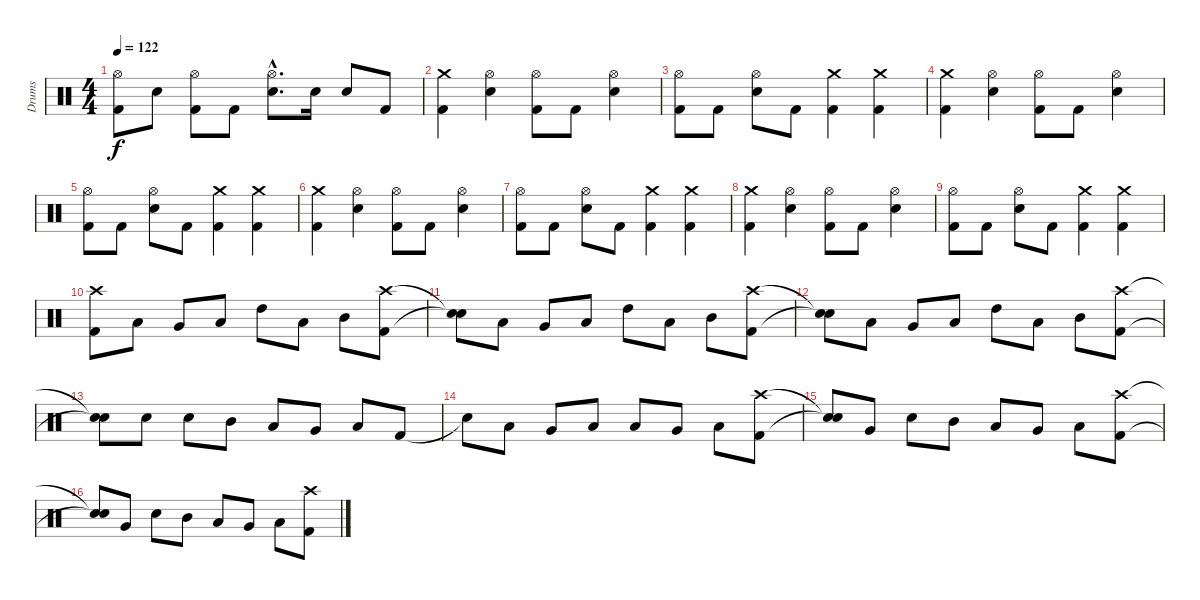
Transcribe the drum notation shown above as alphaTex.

\track ("Drums" "Drums") {instrument percussion}
\staff {score}
\articulation defaults
\ts (4 4)
\tempo 122
\clef neutral
\ks c
("Hi-Hat (open)" "Kick (hit) 2").8{dy f} "Electric Snare (hit)".8 ("Hi-Hat (open)" "Kick (hit) 2").8 "Kick (hit) 2".8 ("Hi-Hat (open)"{hac} "Electric Snare (hit)"{hac}).8{d} "Electric Snare (hit)".16 "Electric Snare (hit)".8 "Kick (hit) 2".8 |
("Crash medium (hit)" "Kick (hit) 2").4 ("Hi-Hat (open)" "Electric Snare (hit)").4 ("Hi-Hat (open)" "Kick (hit) 2").8 "Kick (hit) 2".8 ("Hi-Hat (open)" "Electric Snare (hit)").4 |
("Hi-Hat (open)" "Kick (hit) 2").8 "Kick (hit) 2".8 ("Hi-Hat (open)" "Electric Snare (hit)").8 "Kick (hit) 2".8 ("Crash medium (hit)" "Kick (hit) 2").4 ("Crash medium (hit)" "Kick (hit) 2").4 |
("Crash medium (hit)" "Kick (hit) 2").4 ("Hi-Hat (open)" "Electric Snare (hit)").4 ("Hi-Hat (open)" "Kick (hit) 2").8 "Kick (hit) 2".8 ("Hi-Hat (open)" "Electric Snare (hit)").4 |
("Hi-Hat (open)" "Kick (hit) 2").8 "Kick (hit) 2".8 ("Hi-Hat (open)" "Electric Snare (hit)").8 "Kick (hit) 2".8 ("Crash medium (hit)" "Kick (hit) 2").4 ("Crash medium (hit)" "Kick (hit) 2").4 |
("Crash medium (hit)" "Kick (hit) 2").4 ("Hi-Hat (open)" "Electric Snare (hit)").4 ("Hi-Hat (open)" "Kick (hit) 2").8 "Kick (hit) 2".8 ("Hi-Hat (open)" "Electric Snare (hit)").4 |
("Hi-Hat (open)" "Kick (hit) 2").8 "Kick (hit) 2".8 ("Hi-Hat (open)" "Electric Snare (hit)").8 "Kick (hit) 2".8 ("Crash medium (hit)" "Kick (hit) 2").4 ("Crash medium (hit)" "Kick (hit) 2").4 |
("Crash medium (hit)" "Kick (hit) 2").4 ("Hi-Hat (open)" "Electric Snare (hit)").4 ("Hi-Hat (open)" "Kick (hit) 2").8 "Kick (hit) 2".8 ("Hi-Hat (open)" "Electric Snare (hit)").4 |
("Hi-Hat (open)" "Kick (hit) 2").8 "Kick (hit) 2".8 ("Hi-Hat (open)" "Electric Snare (hit)").8 "Kick (hit) 2".8 ("Crash medium (hit)" "Kick (hit) 2").4 ("Crash medium (hit)" "Kick (hit) 2").4 |
("Crash high (hit)" "Kick (hit) 2").8 "Low Tom (hit)".8 "Very Low Tom (hit)".8 "Low Floor Tom (hit)".8 "High Tom (hit)".8 "Low Floor Tom (hit)".8 "Mid Tom (hit)".8 ("Crash high (hit)" "Kick (hit) 2").8 |
("Snare (hit)"{t} "Snare (hit)"{t}).8 "Low Tom (hit)".8 "Very Low Tom (hit)".8 "Low Floor Tom (hit)".8 "High Tom (hit)".8 "Low Floor Tom (hit)".8 "Mid Tom (hit)".8 ("Crash high (hit)" "Kick (hit) 2").8 |
("Snare (hit)"{t} "Snare (hit)"{t}).8 "Low Tom (hit)".8 "Very Low Tom (hit)".8 "Low Floor Tom (hit)".8 "High Tom (hit)".8 "Low Floor Tom (hit)".8 "Mid Tom (hit)".8 ("Crash high (hit)" "Kick (hit) 2").8 |
("Snare (hit)"{t} "Snare (hit)"{t}).8 "Electric Snare (hit)".8 "Electric Snare (hit)".8 "Mid Tom (hit)".8 "Low Tom (hit)".8 "Very Low Tom (hit)".8 "Low Floor Tom (hit)".8 "Kick (hit) 2".8 |
"Snare (hit)"{t}.8 "Low Tom (hit)".8 "Very Low Tom (hit)".8 "Low Floor Tom (hit)".8 "Low Tom (hit)".8 "Very Low Tom (hit)".8 "Low Floor Tom (hit)".8 ("Crash high (hit)" "Kick (hit) 2").8 |
("Snare (hit)"{t} "Snare (hit)"{t}).8 "Very Low Tom (hit)".8 "Electric Snare (hit)".8 "Mid Tom (hit)".8 "Low Tom (hit)".8 "Very Low Tom (hit)".8 "Low Floor Tom (hit)".8 ("Crash high (hit)" "Kick (hit) 2").8 |
("Snare (hit)"{t} "Snare (hit)"{t}).8 "Very Low Tom (hit)".8 "Electric Snare (hit)".8 "Mid Tom (hit)".8 "Low Tom (hit)".8 "Very Low Tom (hit)".8 "Low Floor Tom (hit)".8 ("Crash high (hit)" "Kick (hit) 2").8
